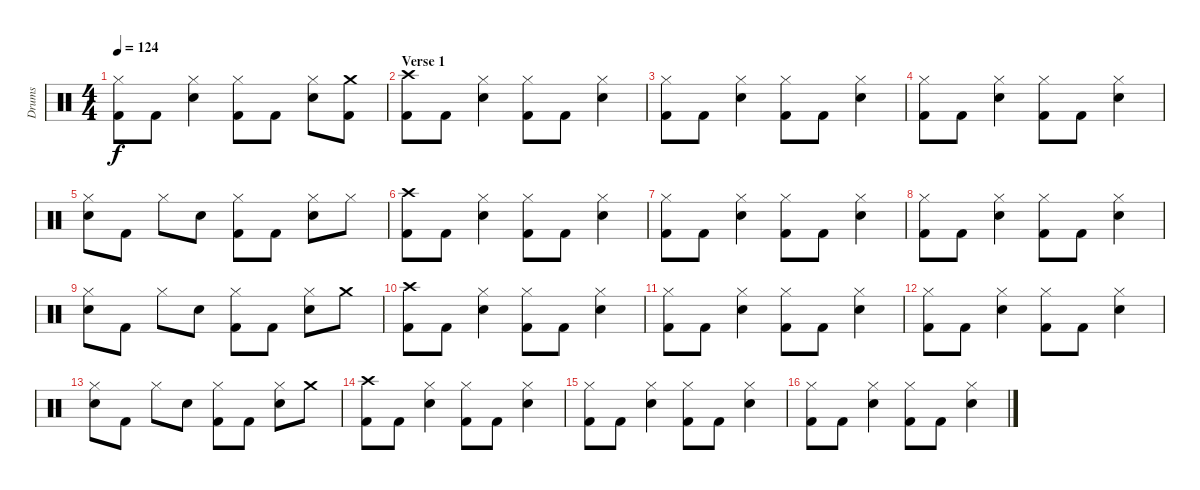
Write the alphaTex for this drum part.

\track ("Drums" "Drums") {instrument percussion}
\staff {score}
\articulation defaults
\ts (4 4)
\tempo 124
\clef neutral
\ks c
("Kick (hit) 2" "Hi-Hat (closed)").8{dy f} "Kick (hit) 2".8 ("Snare (hit) 2" "Hi-Hat (closed)").4 ("Kick (hit) 2" "Hi-Hat (closed)").8 "Kick (hit) 2".8 ("Snare (hit) 2" "Hi-Hat (closed)").8 ("Kick (hit) 2" "Crash medium (hit)").8 |
\section ("" "Verse 1")
("Kick (hit) 2" "Crash high (hit)").8 "Kick (hit) 2".8 ("Snare (hit) 2" "Hi-Hat (closed)").4 ("Kick (hit) 2" "Hi-Hat (closed)").8 "Kick (hit) 2".8 ("Snare (hit) 2" "Hi-Hat (closed)").4 |
("Kick (hit) 2" "Hi-Hat (closed)").8 "Kick (hit) 2".8 ("Snare (hit) 2" "Hi-Hat (closed)").4 ("Kick (hit) 2" "Hi-Hat (closed)").8 "Kick (hit) 2".8 ("Snare (hit) 2" "Hi-Hat (closed)").4 |
("Kick (hit) 2" "Hi-Hat (closed)").8 "Kick (hit) 2".8 ("Snare (hit) 2" "Hi-Hat (closed)").4 ("Kick (hit) 2" "Hi-Hat (closed)").8 "Kick (hit) 2".8 ("Snare (hit) 2" "Hi-Hat (closed)").4 |
("Snare (hit) 2" "Hi-Hat (closed)").8 "Kick (hit) 2".8 "Hi-Hat (closed)".8 "Snare (hit) 2".8 ("Kick (hit) 2" "Hi-Hat (closed)").8 "Kick (hit) 2".8 ("Snare (hit) 2" "Hi-Hat (closed)").8 "Hi-Hat (closed)".8 |
("Kick (hit) 2" "Crash high (hit)").8 "Kick (hit) 2".8 ("Snare (hit) 2" "Hi-Hat (closed)").4 ("Kick (hit) 2" "Hi-Hat (closed)").8 "Kick (hit) 2".8 ("Snare (hit) 2" "Hi-Hat (closed)").4 |
("Kick (hit) 2" "Hi-Hat (closed)").8 "Kick (hit) 2".8 ("Snare (hit) 2" "Hi-Hat (closed)").4 ("Kick (hit) 2" "Hi-Hat (closed)").8 "Kick (hit) 2".8 ("Snare (hit) 2" "Hi-Hat (closed)").4 |
("Kick (hit) 2" "Hi-Hat (closed)").8 "Kick (hit) 2".8 ("Snare (hit) 2" "Hi-Hat (closed)").4 ("Kick (hit) 2" "Hi-Hat (closed)").8 "Kick (hit) 2".8 ("Snare (hit) 2" "Hi-Hat (closed)").4 |
("Snare (hit) 2" "Hi-Hat (closed)").8 "Kick (hit) 2".8 "Hi-Hat (closed)".8 "Snare (hit) 2".8 ("Kick (hit) 2" "Hi-Hat (closed)").8 "Kick (hit) 2".8 ("Snare (hit) 2" "Hi-Hat (closed)").8 "Crash medium (hit)".8 |
("Kick (hit) 2" "Crash high (hit)").8 "Kick (hit) 2".8 ("Snare (hit) 2" "Hi-Hat (closed)").4 ("Kick (hit) 2" "Hi-Hat (closed)").8 "Kick (hit) 2".8 ("Snare (hit) 2" "Hi-Hat (closed)").4 |
("Kick (hit) 2" "Hi-Hat (closed)").8 "Kick (hit) 2".8 ("Snare (hit) 2" "Hi-Hat (closed)").4 ("Kick (hit) 2" "Hi-Hat (closed)").8 "Kick (hit) 2".8 ("Snare (hit) 2" "Hi-Hat (closed)").4 |
("Kick (hit) 2" "Hi-Hat (closed)").8 "Kick (hit) 2".8 ("Snare (hit) 2" "Hi-Hat (closed)").4 ("Kick (hit) 2" "Hi-Hat (closed)").8 "Kick (hit) 2".8 ("Snare (hit) 2" "Hi-Hat (closed)").4 |
("Snare (hit) 2" "Hi-Hat (closed)").8 "Kick (hit) 2".8 "Hi-Hat (closed)".8 "Snare (hit) 2".8 ("Kick (hit) 2" "Hi-Hat (closed)").8 "Kick (hit) 2".8 ("Snare (hit) 2" "Hi-Hat (closed)").8 "Crash medium (hit)".8 |
("Kick (hit) 2" "Crash high (hit)").8 "Kick (hit) 2".8 ("Snare (hit) 2" "Hi-Hat (closed)").4 ("Kick (hit) 2" "Hi-Hat (closed)").8 "Kick (hit) 2".8 ("Snare (hit) 2" "Hi-Hat (closed)").4 |
("Kick (hit) 2" "Hi-Hat (closed)").8 "Kick (hit) 2".8 ("Snare (hit) 2" "Hi-Hat (closed)").4 ("Kick (hit) 2" "Hi-Hat (closed)").8 "Kick (hit) 2".8 ("Snare (hit) 2" "Hi-Hat (closed)").4 |
("Kick (hit) 2" "Hi-Hat (closed)").8 "Kick (hit) 2".8 ("Snare (hit) 2" "Hi-Hat (closed)").4 ("Kick (hit) 2" "Hi-Hat (closed)").8 "Kick (hit) 2".8 ("Snare (hit) 2" "Hi-Hat (closed)").4
